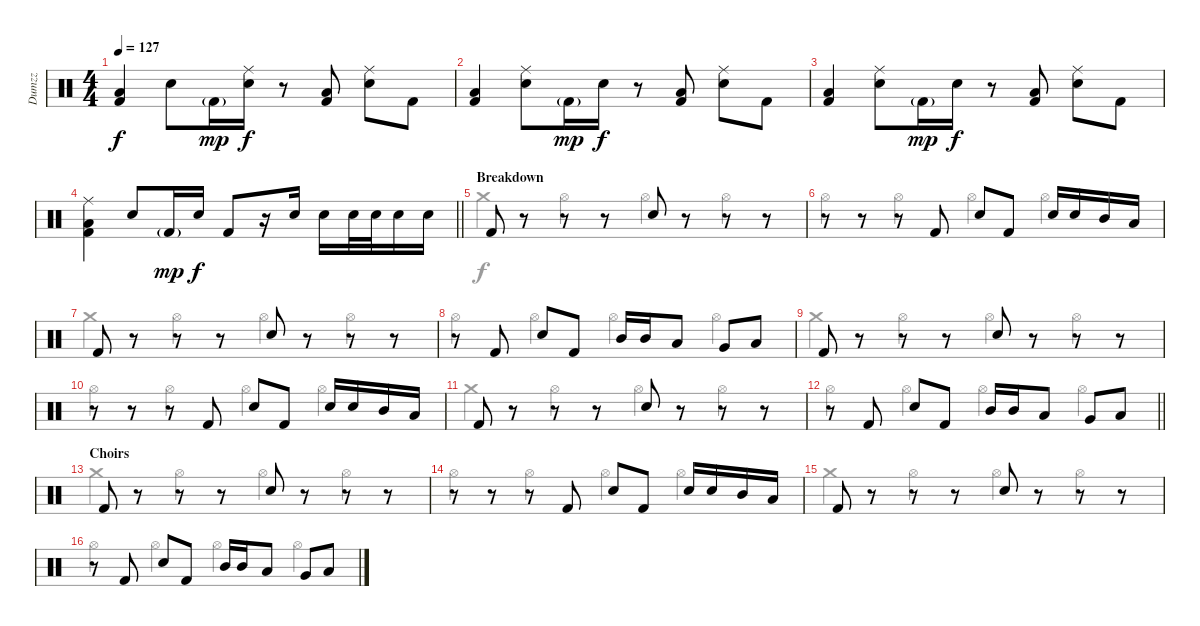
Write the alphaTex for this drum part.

\track ("Dumzz" "Dumzz") {instrument percussion}
\staff {score}
\articulation defaults
\voice
\ts (4 4)
\tempo 127
\clef neutral
\ks c
("Low Tom (hit)" "Kick (hit) 2").4{dy f} "Snare (hit) 2".8 "Kick (hit) 2"{g}.16{dy mp} ("Ride (middle)" "Snare (hit) 2").16{dy f} r.8 ("Low Tom (hit)" "Kick (hit) 2").8 ("Ride (middle)" "Snare (hit) 2").8 "Kick (hit) 2".8 |
("Low Tom (hit)" "Kick (hit) 2").4 ("Ride (middle)" "Snare (hit) 2").8 "Kick (hit) 2"{g}.16{dy mp} "Snare (hit) 2".16{dy f} r.8 ("Low Tom (hit)" "Kick (hit) 2").8 ("Ride (middle)" "Snare (hit) 2").8 "Kick (hit) 2".8 |
("Low Tom (hit)" "Kick (hit) 2").4 ("Ride (middle)" "Snare (hit) 2").8 "Kick (hit) 2"{g}.16{dy mp} "Snare (hit) 2".16{dy f} r.8 ("Low Tom (hit)" "Kick (hit) 2").8 ("Ride (middle)" "Snare (hit) 2").8 "Kick (hit) 2".8 |
\barLineRight lightlight
("Ride (middle)" "Low Tom (hit)" "Kick (hit) 2").4 "Snare (hit) 2".8 "Kick (hit) 2"{g}.16{dy mp} "Snare (hit) 2".16{dy f} "Kick (hit) 2".8 r.16 "Snare (hit) 2".16 "Snare (hit) 2".16 "Snare (hit) 2".32 "Snare (hit) 2".32 "Snare (hit) 2".16 "Snare (hit) 2".16 |
\section ("" "Breakdown")
"Kick (hit) 2".8 r.8 r.8 r.8 "Snare (hit) 2".8 r.8 r.8 r.8 |
r.8 r.8 r.8 "Kick (hit) 2".8 "Snare (hit) 2".8 "Kick (hit) 2".8 "Snare (hit) 2".16 "Snare (hit) 2".16 "Mid Tom (hit)".16 "Low Tom (hit)".16 |
"Kick (hit) 2".8 r.8 r.8 r.8 "Snare (hit) 2".8 r.8 r.8 r.8 |
r.8 "Kick (hit) 2".8 "Snare (hit) 2".8 "Kick (hit) 2".8 "Mid Tom (hit)".16 "Mid Tom (hit)".16 "Low Tom (hit)".8 "Very Low Tom (hit)".8 "Low Floor Tom (hit)".8 |
"Kick (hit) 2".8 r.8 r.8 r.8 "Snare (hit) 2".8 r.8 r.8 r.8 |
r.8 r.8 r.8 "Kick (hit) 2".8 "Snare (hit) 2".8 "Kick (hit) 2".8 "Snare (hit) 2".16 "Snare (hit) 2".16 "Mid Tom (hit)".16 "Low Tom (hit)".16 |
"Kick (hit) 2".8 r.8 r.8 r.8 "Snare (hit) 2".8 r.8 r.8 r.8 |
\barLineRight lightlight
r.8 "Kick (hit) 2".8 "Snare (hit) 2".8 "Kick (hit) 2".8 "Mid Tom (hit)".16 "Mid Tom (hit)".16 "Low Tom (hit)".8 "Very Low Tom (hit)".8 "Low Floor Tom (hit)".8 |
\section ("" "Choirs")
"Kick (hit) 2".8 r.8 r.8 r.8 "Snare (hit) 2".8 r.8 r.8 r.8 |
r.8 r.8 r.8 "Kick (hit) 2".8 "Snare (hit) 2".8 "Kick (hit) 2".8 "Snare (hit) 2".16 "Snare (hit) 2".16 "Mid Tom (hit)".16 "Low Tom (hit)".16 |
"Kick (hit) 2".8 r.8 r.8 r.8 "Snare (hit) 2".8 r.8 r.8 r.8 |
r.8 "Kick (hit) 2".8 "Snare (hit) 2".8 "Kick (hit) 2".8 "Mid Tom (hit)".16 "Mid Tom (hit)".16 "Low Tom (hit)".8 "Very Low Tom (hit)".8 "Low Floor Tom (hit)".8
\voice
\clef neutral
\ottava regular
\simile none
\ks c
|
|
|
\barLineRight lightlight
|
"Crash medium (hit)".4 "Hi-Hat (open)".4 "Hi-Hat (open)".4 "Hi-Hat (open)".4 |
"Hi-Hat (open)".4 "Hi-Hat (open)".4 "Hi-Hat (open)".4 "Hi-Hat (open)".4 |
"Crash medium (hit)".4 "Hi-Hat (open)".4 "Hi-Hat (open)".4 "Hi-Hat (open)".4 |
"Hi-Hat (open)".4 "Hi-Hat (open)".4 "Hi-Hat (open)".4 "Hi-Hat (open)".4 |
"Crash medium (hit)".4 "Hi-Hat (open)".4 "Hi-Hat (open)".4 "Hi-Hat (open)".4 |
"Hi-Hat (open)".4 "Hi-Hat (open)".4 "Hi-Hat (open)".4 "Hi-Hat (open)".4 |
"Crash medium (hit)".4 "Hi-Hat (open)".4 "Hi-Hat (open)".4 "Hi-Hat (open)".4 |
\barLineRight lightlight "Hi-Hat (open)".4 "Hi-Hat (open)".4 "Hi-Hat (open)".4 "Hi-Hat (open)".4
|
"Crash medium (hit)".4 "Hi-Hat (open)".4 "Hi-Hat (open)".4 "Hi-Hat (open)".4 |
"Hi-Hat (open)".4 "Hi-Hat (open)".4 "Hi-Hat (open)".4 "Hi-Hat (open)".4 |
"Crash medium (hit)".4 "Hi-Hat (open)".4 "Hi-Hat (open)".4 "Hi-Hat (open)".4 |
"Hi-Hat (open)".4 "Hi-Hat (open)".4 "Hi-Hat (open)".4 "Hi-Hat (open)".4
